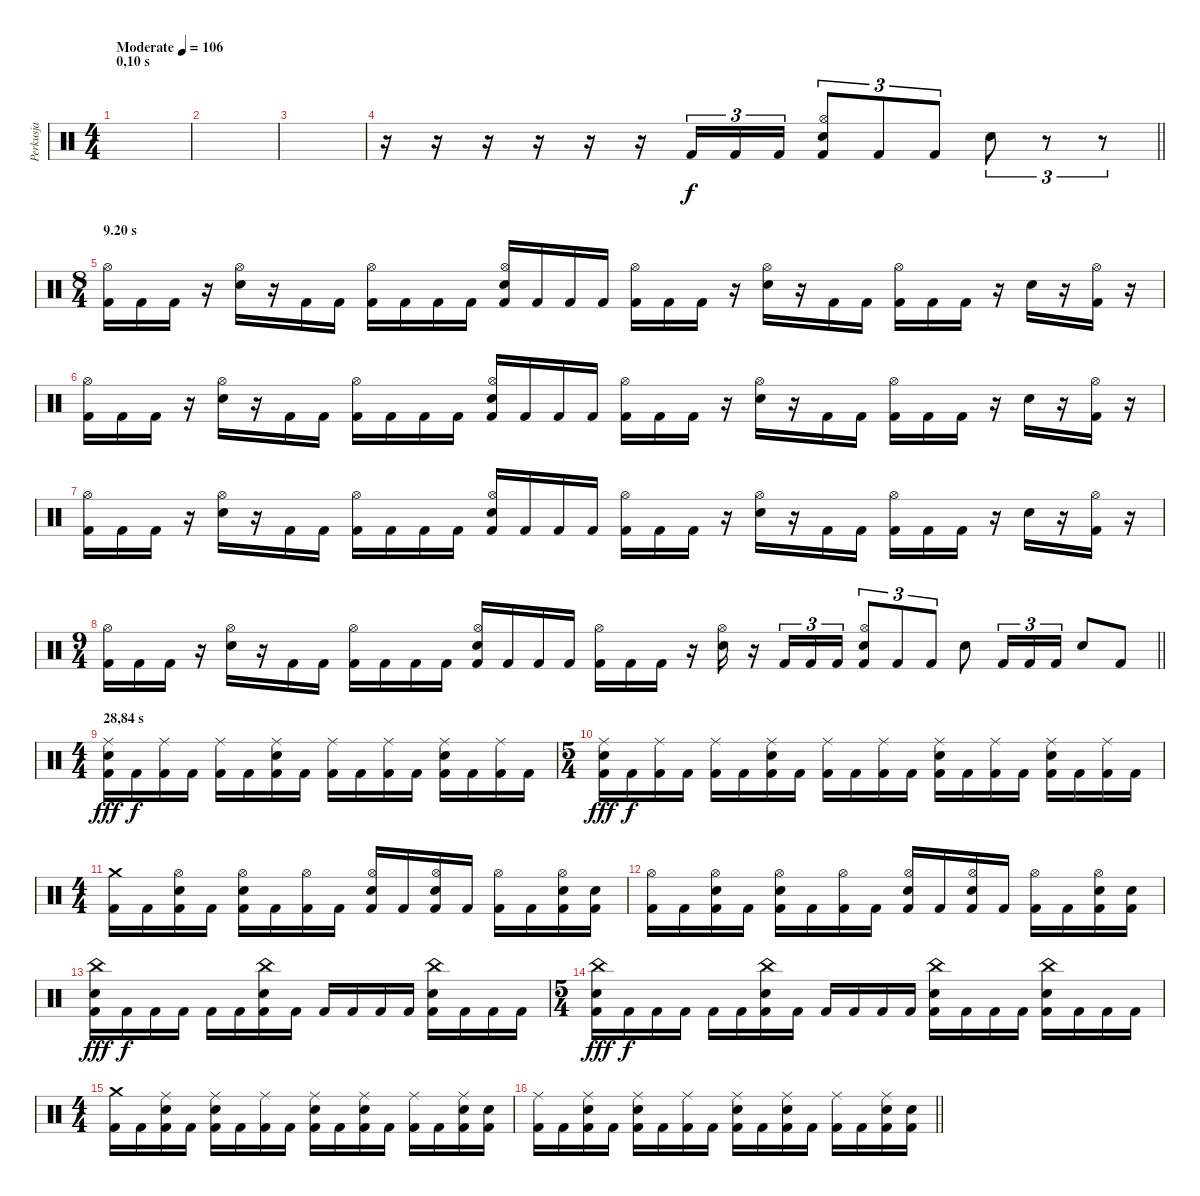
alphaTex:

\track ("Perkusja" "Perkusja") {instrument percussion}
\staff {score}
\articulation defaults
\ts (4 4)
\section ("" "0,10 s")
\tempo (106 "Moderate")
\clef neutral
\ks c
|
|
|
\barLineRight lightlight
r.16 r.16 r.16 r.16 r.16 r.16 "Kick (hit) 2".16{tu (3 2)} "Kick (hit) 2".16{tu (3 2)} "Kick (hit) 2".16{tu (3 2)} ("Hi-Hat (open)" "Electric Snare (hit)" "Kick (hit) 2").8{tu (3 2)} "Kick (hit) 2".8{tu (3 2)} "Kick (hit) 2".8{tu (3 2)} "Electric Snare (hit)".8{tu (3 2)} r.8{tu (3 2)} r.8{tu (3 2)} |
\ts (8 4)
\section ("" "9.20 s")
("Hi-Hat (open)" "Kick (hit) 2").16 "Kick (hit) 2".16 "Kick (hit) 2".16 r.16 ("Hi-Hat (open)" "Electric Snare (hit)").16 r.16 "Kick (hit) 2".16 "Kick (hit) 2".16 ("Hi-Hat (open)" "Kick (hit) 2").16 "Kick (hit) 2".16 "Kick (hit) 2".16 "Kick (hit) 2".16 ("Hi-Hat (open)" "Electric Snare (hit)" "Kick (hit) 2").16 "Kick (hit) 2".16 "Kick (hit) 2".16 "Kick (hit) 2".16 ("Hi-Hat (open)" "Kick (hit) 2").16 "Kick (hit) 2".16 "Kick (hit) 2".16 r.16 ("Hi-Hat (open)" "Electric Snare (hit)").16 r.16 "Kick (hit) 2".16 "Kick (hit) 2".16 ("Hi-Hat (open)" "Kick (hit) 2").16 "Kick (hit) 2".16 "Kick (hit) 2".16 r.16 "Electric Snare (hit)".16 r.16 ("Hi-Hat (open)" "Kick (hit) 2").16 r.16 |
("Hi-Hat (open)" "Kick (hit) 2").16 "Kick (hit) 2".16 "Kick (hit) 2".16 r.16 ("Hi-Hat (open)" "Electric Snare (hit)").16 r.16 "Kick (hit) 2".16 "Kick (hit) 2".16 ("Hi-Hat (open)" "Kick (hit) 2").16 "Kick (hit) 2".16 "Kick (hit) 2".16 "Kick (hit) 2".16 ("Hi-Hat (open)" "Electric Snare (hit)" "Kick (hit) 2").16 "Kick (hit) 2".16 "Kick (hit) 2".16 "Kick (hit) 2".16 ("Hi-Hat (open)" "Kick (hit) 2").16 "Kick (hit) 2".16 "Kick (hit) 2".16 r.16 ("Hi-Hat (open)" "Electric Snare (hit)").16 r.16 "Kick (hit) 2".16 "Kick (hit) 2".16 ("Hi-Hat (open)" "Kick (hit) 2").16 "Kick (hit) 2".16 "Kick (hit) 2".16 r.16 "Electric Snare (hit)".16 r.16 ("Hi-Hat (open)" "Kick (hit) 2").16 r.16 |
("Hi-Hat (open)" "Kick (hit) 2").16 "Kick (hit) 2".16 "Kick (hit) 2".16 r.16 ("Hi-Hat (open)" "Electric Snare (hit)").16 r.16 "Kick (hit) 2".16 "Kick (hit) 2".16 ("Hi-Hat (open)" "Kick (hit) 2").16 "Kick (hit) 2".16 "Kick (hit) 2".16 "Kick (hit) 2".16 ("Hi-Hat (open)" "Electric Snare (hit)" "Kick (hit) 2").16 "Kick (hit) 2".16 "Kick (hit) 2".16 "Kick (hit) 2".16 ("Hi-Hat (open)" "Kick (hit) 2").16 "Kick (hit) 2".16 "Kick (hit) 2".16 r.16 ("Hi-Hat (open)" "Electric Snare (hit)").16 r.16 "Kick (hit) 2".16 "Kick (hit) 2".16 ("Hi-Hat (open)" "Kick (hit) 2").16 "Kick (hit) 2".16 "Kick (hit) 2".16 r.16 "Electric Snare (hit)".16 r.16 ("Hi-Hat (open)" "Kick (hit) 2").16 r.16 |
\ts (9 4)
\barLineRight lightlight
("Hi-Hat (open)" "Kick (hit) 2").16 "Kick (hit) 2".16 "Kick (hit) 2".16 r.16 ("Hi-Hat (open)" "Electric Snare (hit)").16 r.16 "Kick (hit) 2".16 "Kick (hit) 2".16 ("Hi-Hat (open)" "Kick (hit) 2").16 "Kick (hit) 2".16 "Kick (hit) 2".16 "Kick (hit) 2".16 ("Hi-Hat (open)" "Electric Snare (hit)" "Kick (hit) 2").16 "Kick (hit) 2".16 "Kick (hit) 2".16 "Kick (hit) 2".16 ("Hi-Hat (open)" "Kick (hit) 2").16 "Kick (hit) 2".16 "Kick (hit) 2".16 r.16 ("Hi-Hat (open)" "Electric Snare (hit)").16 r.16 "Kick (hit) 2".16{tu (3 2)} "Kick (hit) 2".16{tu (3 2)} "Kick (hit) 2".16{tu (3 2)} ("Hi-Hat (open)" "Electric Snare (hit)" "Kick (hit) 2").8{tu (3 2)} "Kick (hit) 2".8{tu (3 2)} "Kick (hit) 2".8{tu (3 2)} "Electric Snare (hit)".8 "Kick (hit) 2".16{tu (3 2)} "Kick (hit) 2".16{tu (3 2)} "Kick (hit) 2".16{tu (3 2)} "Electric Snare (hit)".8 "Kick (hit) 2".8 |
\ts (4 4)
\section ("" "28,84 s")
("Ride (middle)" "Electric Snare (hit)" "Kick (hit) 2").16{dy fff} "Kick (hit) 2".16{dy f} ("Ride (middle)" "Kick (hit) 2").16 "Kick (hit) 2".16 ("Ride (middle)" "Kick (hit) 2").16 "Kick (hit) 2".16 ("Ride (middle)" "Electric Snare (hit)" "Kick (hit) 2").16 "Kick (hit) 2".16 ("Ride (middle)" "Kick (hit) 2").16 "Kick (hit) 2".16 ("Ride (middle)" "Kick (hit) 2").16 "Kick (hit) 2".16 ("Ride (middle)" "Electric Snare (hit)" "Kick (hit) 2").16 "Kick (hit) 2".16 ("Ride (middle)" "Kick (hit) 2").16 "Kick (hit) 2".16 |
\ts (5 4)
("Ride (middle)" "Electric Snare (hit)" "Kick (hit) 2").16{dy fff} "Kick (hit) 2".16{dy f} ("Ride (middle)" "Kick (hit) 2").16 "Kick (hit) 2".16 ("Ride (middle)" "Kick (hit) 2").16 "Kick (hit) 2".16 ("Ride (middle)" "Electric Snare (hit)" "Kick (hit) 2").16 "Kick (hit) 2".16 ("Ride (middle)" "Kick (hit) 2").16 "Kick (hit) 2".16 ("Ride (middle)" "Kick (hit) 2").16 "Kick (hit) 2".16 ("Ride (middle)" "Electric Snare (hit)" "Kick (hit) 2").16 "Kick (hit) 2".16 ("Ride (middle)" "Kick (hit) 2").16 "Kick (hit) 2".16 ("Ride (middle)" "Electric Snare (hit)" "Kick (hit) 2").16 "Kick (hit) 2".16 ("Ride (middle)" "Kick (hit) 2").16 "Kick (hit) 2".16 |
\ts (4 4)
("Crash medium (hit)" "Kick (hit) 2").16 "Kick (hit) 2".16 ("Hi-Hat (open)" "Electric Snare (hit)" "Kick (hit) 2").16 "Kick (hit) 2".16 ("Hi-Hat (open)" "Electric Snare (hit)" "Kick (hit) 2").16 "Kick (hit) 2".16 ("Hi-Hat (open)" "Kick (hit) 2").16 "Kick (hit) 2".16 ("Hi-Hat (open)" "Electric Snare (hit)" "Kick (hit) 2").16 "Kick (hit) 2".16 ("Hi-Hat (open)" "Electric Snare (hit)" "Kick (hit) 2").16 "Kick (hit) 2".16 ("Hi-Hat (open)" "Kick (hit) 2").16 "Kick (hit) 2".16 ("Hi-Hat (open)" "Electric Snare (hit)" "Kick (hit) 2").16 ("Electric Snare (hit)" "Kick (hit) 2").16 |
("Hi-Hat (open)" "Kick (hit) 2").16 "Kick (hit) 2".16 ("Hi-Hat (open)" "Electric Snare (hit)" "Kick (hit) 2").16 "Kick (hit) 2".16 ("Hi-Hat (open)" "Electric Snare (hit)" "Kick (hit) 2").16 "Kick (hit) 2".16 ("Hi-Hat (open)" "Kick (hit) 2").16 "Kick (hit) 2".16 ("Hi-Hat (open)" "Electric Snare (hit)" "Kick (hit) 2").16 "Kick (hit) 2".16 ("Hi-Hat (open)" "Electric Snare (hit)" "Kick (hit) 2").16 "Kick (hit) 2".16 ("Hi-Hat (open)" "Kick (hit) 2").16 "Kick (hit) 2".16 ("Hi-Hat (open)" "Electric Snare (hit)" "Kick (hit) 2").16 ("Electric Snare (hit)" "Kick (hit) 2").16 |
("China (hit)" "Electric Snare (hit)" "Kick (hit) 2").16{dy fff} "Kick (hit) 2".16{dy f} "Kick (hit) 2".16 "Kick (hit) 2".16 "Kick (hit) 2".16 "Kick (hit) 2".16 ("China (hit)" "Electric Snare (hit)" "Kick (hit) 2").16 "Kick (hit) 2".16 "Kick (hit) 2".16 "Kick (hit) 2".16 "Kick (hit) 2".16 "Kick (hit) 2".16 ("China (hit)" "Electric Snare (hit)" "Kick (hit) 2").16 "Kick (hit) 2".16 "Kick (hit) 2".16 "Kick (hit) 2".16 |
\ts (5 4)
("China (hit)" "Electric Snare (hit)" "Kick (hit) 2").16{dy fff} "Kick (hit) 2".16{dy f} "Kick (hit) 2".16 "Kick (hit) 2".16 "Kick (hit) 2".16 "Kick (hit) 2".16 ("China (hit)" "Electric Snare (hit)" "Kick (hit) 2").16 "Kick (hit) 2".16 "Kick (hit) 2".16 "Kick (hit) 2".16 "Kick (hit) 2".16 "Kick (hit) 2".16 ("China (hit)" "Electric Snare (hit)" "Kick (hit) 2").16 "Kick (hit) 2".16 "Kick (hit) 2".16 "Kick (hit) 2".16 ("China (hit)" "Electric Snare (hit)" "Kick (hit) 2").16 "Kick (hit) 2".16 "Kick (hit) 2".16 "Kick (hit) 2".16 |
\ts (4 4)
("Crash medium (hit)" "Kick (hit) 2").16 "Kick (hit) 2".16 ("Ride (middle)" "Electric Snare (hit)" "Kick (hit) 2").16 "Kick (hit) 2".16 ("Ride (middle)" "Electric Snare (hit)" "Kick (hit) 2").16 "Kick (hit) 2".16 ("Ride (middle)" "Kick (hit) 2").16 "Kick (hit) 2".16 ("Ride (middle)" "Electric Snare (hit)" "Kick (hit) 2").16 "Kick (hit) 2".16 ("Ride (middle)" "Electric Snare (hit)" "Kick (hit) 2").16 "Kick (hit) 2".16 ("Ride (middle)" "Kick (hit) 2").16 "Kick (hit) 2".16 ("Ride (middle)" "Electric Snare (hit)" "Kick (hit) 2").16 ("Electric Snare (hit)" "Kick (hit) 2").16 |
\barLineRight lightlight
("Ride (middle)" "Kick (hit) 2").16 "Kick (hit) 2".16 ("Ride (middle)" "Electric Snare (hit)" "Kick (hit) 2").16 "Kick (hit) 2".16 ("Ride (middle)" "Electric Snare (hit)" "Kick (hit) 2").16 "Kick (hit) 2".16 ("Ride (middle)" "Kick (hit) 2").16 "Kick (hit) 2".16 ("Ride (middle)" "Electric Snare (hit)" "Kick (hit) 2").16 "Kick (hit) 2".16 ("Ride (middle)" "Electric Snare (hit)" "Kick (hit) 2").16 "Kick (hit) 2".16 ("Ride (middle)" "Kick (hit) 2").16 "Kick (hit) 2".16 ("Ride (middle)" "Electric Snare (hit)" "Kick (hit) 2").16 ("Electric Snare (hit)" "Kick (hit) 2").16
